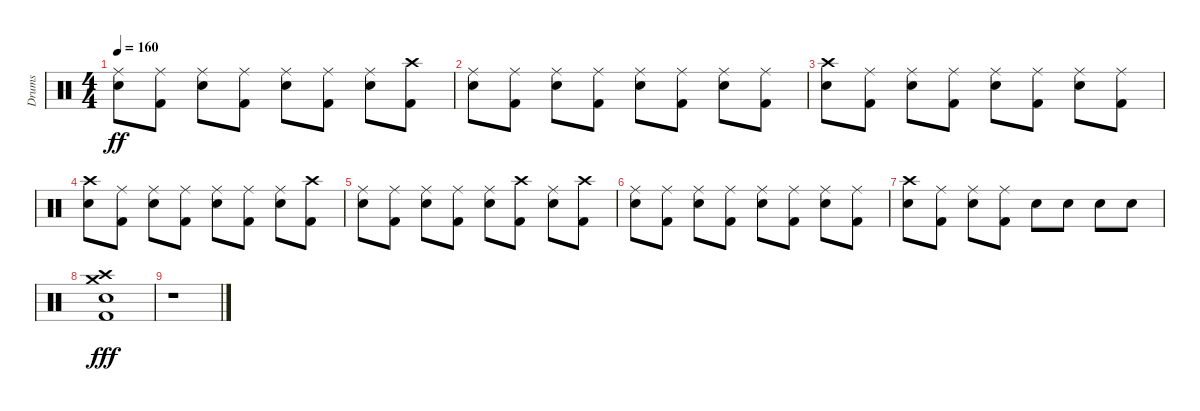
\track ("Drums" "Drums") {instrument percussion}
\staff {score}
\articulation defaults
\ts (4 4)
\tempo 160
\clef neutral
\ks c
("Ride (middle)" "Snare (hit) 2").8{dy ff} ("Ride (middle)" "Kick (hit) 2").8 ("Ride (middle)" "Snare (hit) 2").8 ("Ride (middle)" "Kick (hit) 2").8 ("Ride (middle)" "Snare (hit) 2").8 ("Ride (middle)" "Kick (hit) 2").8 ("Ride (middle)" "Snare (hit) 2").8 ("Crash high (hit)" "Kick (hit) 2").8 |
("Ride (middle)" "Snare (hit) 2").8 ("Ride (middle)" "Kick (hit) 2").8 ("Ride (middle)" "Snare (hit) 2").8 ("Ride (middle)" "Kick (hit) 2").8 ("Ride (middle)" "Snare (hit) 2").8 ("Ride (middle)" "Kick (hit) 2").8 ("Ride (middle)" "Snare (hit) 2").8 ("Ride (middle)" "Kick (hit) 2").8 |
("Crash high (hit)" "Snare (hit) 2").8 ("Ride (middle)" "Kick (hit) 2").8 ("Ride (middle)" "Snare (hit) 2").8 ("Ride (middle)" "Kick (hit) 2").8 ("Ride (middle)" "Snare (hit) 2").8 ("Ride (middle)" "Kick (hit) 2").8 ("Ride (middle)" "Snare (hit) 2").8 ("Ride (middle)" "Kick (hit) 2").8 |
("Crash high (hit)" "Snare (hit) 2").8 ("Ride (middle)" "Kick (hit) 2").8 ("Ride (middle)" "Snare (hit) 2").8 ("Ride (middle)" "Kick (hit) 2").8 ("Ride (middle)" "Snare (hit) 2").8 ("Ride (middle)" "Kick (hit) 2").8 ("Ride (middle)" "Snare (hit) 2").8 ("Crash high (hit)" "Kick (hit) 2").8 |
("Ride (middle)" "Snare (hit) 2").8 ("Ride (middle)" "Kick (hit) 2").8 ("Ride (middle)" "Snare (hit) 2").8 ("Ride (middle)" "Kick (hit) 2").8 ("Ride (middle)" "Snare (hit) 2").8 ("Crash high (hit)" "Kick (hit) 2").8 ("Ride (middle)" "Snare (hit) 2").8 ("Crash high (hit)" "Kick (hit) 2").8 |
("Ride (middle)" "Snare (hit) 2").8 ("Ride (middle)" "Kick (hit) 2").8 ("Ride (middle)" "Snare (hit) 2").8 ("Ride (middle)" "Kick (hit) 2").8 ("Ride (middle)" "Snare (hit) 2").8 ("Ride (middle)" "Kick (hit) 2").8 ("Ride (middle)" "Snare (hit) 2").8 ("Ride (middle)" "Kick (hit) 2").8 |
("Crash high (hit)" "Snare (hit) 2").8 ("Ride (middle)" "Kick (hit) 2").8 ("Ride (middle)" "Snare (hit) 2").8 ("Kick (hit) 2" "Ride (middle)").8 "Snare (hit) 2".8 "Snare (hit) 2".8 "Snare (hit) 2".8 "Snare (hit) 2".8 |
("Kick (hit) 2" "Crash medium (hit)" "Crash high (hit)" "Snare (hit) 2").1{dy fff} |
r.1
